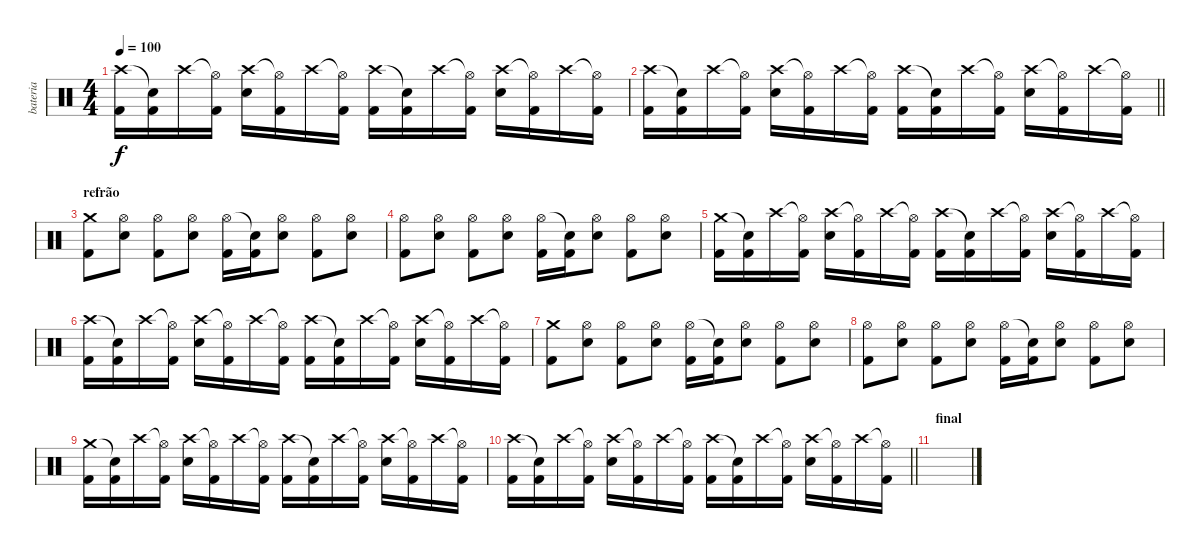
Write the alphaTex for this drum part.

\track ("bateria" "bateria") {instrument percussion}
\staff {score}
\articulation defaults
\ts (4 4)
\tempo 100
\clef neutral
\ks c
("Crash high (hit)" "Kick (hit) 2").16{dy f} ("Snare (hit)"{t} "Kick (hit) 2").16 "Crash high (hit)".16 ("Hi-Hat (open)"{t} "Kick (hit) 2").16 ("Crash high (hit)" "Electric Snare (hit)").16 ("Hi-Hat (open)"{t} "Kick (hit) 2").16 "Crash high (hit)".16 ("Hi-Hat (open)"{t} "Kick (hit) 2").16 ("Crash high (hit)" "Kick (hit) 2").16 ("Snare (hit)"{t} "Kick (hit) 2").16 "Crash high (hit)".16 ("Hi-Hat (open)"{t} "Kick (hit) 2").16 ("Crash high (hit)" "Electric Snare (hit)").16 ("Hi-Hat (open)"{t} "Kick (hit) 2").16 "Crash high (hit)".16 ("Hi-Hat (open)"{t} "Kick (hit) 2").16 |
\barLineRight lightlight
("Crash high (hit)" "Kick (hit) 2").16 ("Snare (hit)"{t} "Kick (hit) 2").16 "Crash high (hit)".16 ("Hi-Hat (open)"{t} "Kick (hit) 2").16 ("Crash high (hit)" "Electric Snare (hit)").16 ("Hi-Hat (open)"{t} "Kick (hit) 2").16 "Crash high (hit)".16 ("Hi-Hat (open)"{t} "Kick (hit) 2").16 ("Crash high (hit)" "Kick (hit) 2").16 ("Snare (hit)"{t} "Kick (hit) 2").16 "Crash high (hit)".16 ("Hi-Hat (open)"{t} "Kick (hit) 2").16 ("Crash high (hit)" "Electric Snare (hit)").16 ("Hi-Hat (open)"{t} "Kick (hit) 2").16 "Crash high (hit)".16 ("Hi-Hat (open)"{t} "Kick (hit) 2").16 |
\section ("" "refrão")
("Crash medium (hit)" "Kick (hit) 2").8 ("Hi-Hat (open)" "Electric Snare (hit)").8 ("Hi-Hat (open)" "Kick (hit) 2").8 ("Hi-Hat (open)" "Electric Snare (hit)").8 ("Hi-Hat (open)" "Kick (hit) 2").16 ("Snare (hit)"{t} "Kick (hit) 2").16 ("Hi-Hat (open)" "Electric Snare (hit)").8 ("Hi-Hat (open)" "Kick (hit) 2").8 ("Hi-Hat (open)" "Electric Snare (hit)").8 |
("Hi-Hat (open)" "Kick (hit) 2").8 ("Hi-Hat (open)" "Electric Snare (hit)").8 ("Hi-Hat (open)" "Kick (hit) 2").8 ("Hi-Hat (open)" "Electric Snare (hit)").8 ("Hi-Hat (open)" "Kick (hit) 2").16 ("Snare (hit)"{t} "Kick (hit) 2").16 ("Hi-Hat (open)" "Electric Snare (hit)").8 ("Hi-Hat (open)" "Kick (hit) 2").8 ("Hi-Hat (open)" "Electric Snare (hit)").8 |
("Crash medium (hit)" "Kick (hit) 2").16 ("Snare (hit)"{t} "Kick (hit) 2").16 "Crash high (hit)".16 ("Hi-Hat (open)"{t} "Kick (hit) 2").16 ("Crash high (hit)" "Electric Snare (hit)").16 ("Hi-Hat (open)"{t} "Kick (hit) 2").16 "Crash high (hit)".16 ("Hi-Hat (open)"{t} "Kick (hit) 2").16 ("Crash high (hit)" "Kick (hit) 2").16 ("Snare (hit)"{t} "Kick (hit) 2").16 "Crash high (hit)".16 ("Hi-Hat (open)"{t} "Kick (hit) 2").16 ("Crash high (hit)" "Electric Snare (hit)").16 ("Hi-Hat (open)"{t} "Kick (hit) 2").16 "Crash high (hit)".16 ("Hi-Hat (open)"{t} "Kick (hit) 2").16 |
("Crash high (hit)" "Kick (hit) 2").16 ("Snare (hit)"{t} "Kick (hit) 2").16 "Crash high (hit)".16 ("Hi-Hat (open)"{t} "Kick (hit) 2").16 ("Crash high (hit)" "Electric Snare (hit)").16 ("Hi-Hat (open)"{t} "Kick (hit) 2").16 "Crash high (hit)".16 ("Hi-Hat (open)"{t} "Kick (hit) 2").16 ("Crash high (hit)" "Kick (hit) 2").16 ("Snare (hit)"{t} "Kick (hit) 2").16 "Crash high (hit)".16 ("Hi-Hat (open)"{t} "Kick (hit) 2").16 ("Crash high (hit)" "Electric Snare (hit)").16 ("Hi-Hat (open)"{t} "Kick (hit) 2").16 "Crash high (hit)".16 ("Hi-Hat (open)"{t} "Kick (hit) 2").16 |
("Crash medium (hit)" "Kick (hit) 2").8 ("Hi-Hat (open)" "Electric Snare (hit)").8 ("Hi-Hat (open)" "Kick (hit) 2").8 ("Hi-Hat (open)" "Electric Snare (hit)").8 ("Hi-Hat (open)" "Kick (hit) 2").16 ("Snare (hit)"{t} "Kick (hit) 2").16 ("Hi-Hat (open)" "Electric Snare (hit)").8 ("Hi-Hat (open)" "Kick (hit) 2").8 ("Hi-Hat (open)" "Electric Snare (hit)").8 |
("Hi-Hat (open)" "Kick (hit) 2").8 ("Hi-Hat (open)" "Electric Snare (hit)").8 ("Hi-Hat (open)" "Kick (hit) 2").8 ("Hi-Hat (open)" "Electric Snare (hit)").8 ("Hi-Hat (open)" "Kick (hit) 2").16 ("Snare (hit)"{t} "Kick (hit) 2").16 ("Hi-Hat (open)" "Electric Snare (hit)").8 ("Hi-Hat (open)" "Kick (hit) 2").8 ("Hi-Hat (open)" "Electric Snare (hit)").8 |
("Crash medium (hit)" "Kick (hit) 2").16 ("Snare (hit)"{t} "Kick (hit) 2").16 "Crash high (hit)".16 ("Hi-Hat (open)"{t} "Kick (hit) 2").16 ("Crash high (hit)" "Electric Snare (hit)").16 ("Hi-Hat (open)"{t} "Kick (hit) 2").16 "Crash high (hit)".16 ("Hi-Hat (open)"{t} "Kick (hit) 2").16 ("Crash high (hit)" "Kick (hit) 2").16 ("Snare (hit)"{t} "Kick (hit) 2").16 "Crash high (hit)".16 ("Hi-Hat (open)"{t} "Kick (hit) 2").16 ("Crash high (hit)" "Electric Snare (hit)").16 ("Hi-Hat (open)"{t} "Kick (hit) 2").16 "Crash high (hit)".16 ("Hi-Hat (open)"{t} "Kick (hit) 2").16 |
\barLineRight lightlight
("Crash high (hit)" "Kick (hit) 2").16 ("Snare (hit)"{t} "Kick (hit) 2").16 "Crash high (hit)".16 ("Hi-Hat (open)"{t} "Kick (hit) 2").16 ("Crash high (hit)" "Electric Snare (hit)").16 ("Hi-Hat (open)"{t} "Kick (hit) 2").16 "Crash high (hit)".16 ("Hi-Hat (open)"{t} "Kick (hit) 2").16 ("Crash high (hit)" "Kick (hit) 2").16 ("Snare (hit)"{t} "Kick (hit) 2").16 "Crash high (hit)".16 ("Hi-Hat (open)"{t} "Kick (hit) 2").16 ("Crash high (hit)" "Electric Snare (hit)").16 ("Hi-Hat (open)"{t} "Kick (hit) 2").16 "Crash high (hit)".16 ("Hi-Hat (open)"{t} "Kick (hit) 2").16 |
\section ("" "final")
